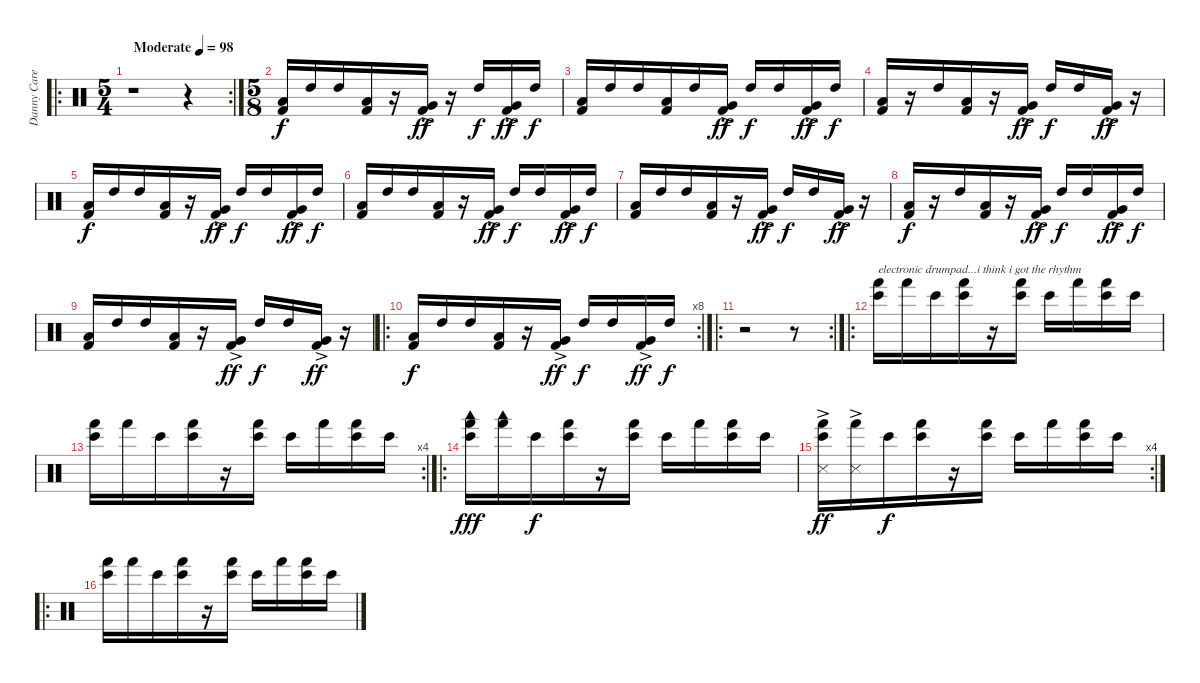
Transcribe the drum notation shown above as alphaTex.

\track ("Danny Carey" "Danny Care") {instrument percussion}
\staff {score}
\articulation defaults
\ro
\rc 2
\ts (5 4)
\tempo (98 "Moderate")
\clef neutral
\ks c
r.1{dy f} r.4 |
\ts (5 8)
("Low Floor Tom (hit)" "Kick (hit) 2").16 "High Tom (hit)".16 "High Tom (hit)".16 ("Low Floor Tom (hit)" "Kick (hit) 2").16 r.16 ("Very Low Tom (hit)"{ac} "Kick (hit) 2").16{dy ff} r.16 "High Tom (hit)".16{dy f} ("Very Low Tom (hit)"{ac} "Kick (hit) 2").16{dy ff} "High Tom (hit)".16{dy f} |
("Low Floor Tom (hit)" "Kick (hit) 2").16 "High Tom (hit)".16 "High Tom (hit)".16 ("Low Floor Tom (hit)" "Kick (hit) 2").16 "High Tom (hit)".16 ("Very Low Tom (hit)"{ac} "Kick (hit) 2").16{dy ff} "High Tom (hit)".16{dy f} "High Tom (hit)".16 ("Very Low Tom (hit)"{ac} "Kick (hit) 2").16{dy ff} "High Tom (hit)".16{dy f} |
("Low Floor Tom (hit)" "Kick (hit) 2").16 r.16 "High Tom (hit)".16 ("Low Floor Tom (hit)" "Kick (hit) 2").16 r.16 ("Very Low Tom (hit)"{ac} "Kick (hit) 2").16{dy ff} "High Tom (hit)".16{dy f} "High Tom (hit)".16 ("Very Low Tom (hit)"{ac} "Kick (hit) 2").16{dy ff} r.16 |
("Low Floor Tom (hit)" "Kick (hit) 2").16{dy f} "High Tom (hit)".16 "High Tom (hit)".16 ("Low Floor Tom (hit)" "Kick (hit) 2").16 r.16 ("Very Low Tom (hit)"{ac} "Kick (hit) 2").16{dy ff} "High Tom (hit)".16{dy f} "High Tom (hit)".16 ("Very Low Tom (hit)"{ac} "Kick (hit) 2").16{dy ff} "High Tom (hit)".16{dy f} |
("Low Floor Tom (hit)" "Kick (hit) 2").16 "High Tom (hit)".16 "High Tom (hit)".16 ("Low Floor Tom (hit)" "Kick (hit) 2").16 r.16 ("Very Low Tom (hit)"{ac} "Kick (hit) 2").16{dy ff} "High Tom (hit)".16{dy f} "High Tom (hit)".16 ("Very Low Tom (hit)"{ac} "Kick (hit) 2").16{dy ff} "High Tom (hit)".16{dy f} |
("Low Floor Tom (hit)" "Kick (hit) 2").16 "High Tom (hit)".16 "High Tom (hit)".16 ("Low Floor Tom (hit)" "Kick (hit) 2").16 r.16 ("Very Low Tom (hit)"{ac} "Kick (hit) 2").16{dy ff} "High Tom (hit)".16{dy f} "High Tom (hit)".16 ("Very Low Tom (hit)"{ac} "Kick (hit) 2").16{dy ff} r.16 |
("Low Floor Tom (hit)" "Kick (hit) 2").16{dy f} r.16 "High Tom (hit)".16 ("Low Floor Tom (hit)" "Kick (hit) 2").16 r.16 ("Very Low Tom (hit)"{ac} "Kick (hit) 2").16{dy ff} "High Tom (hit)".16{dy f} "High Tom (hit)".16 ("Very Low Tom (hit)"{ac} "Kick (hit) 2").16{dy ff} "High Tom (hit)".16{dy f} |
("Low Floor Tom (hit)" "Kick (hit) 2").16 "High Tom (hit)".16 "High Tom (hit)".16 ("Low Floor Tom (hit)" "Kick (hit) 2").16 r.16 ("Very Low Tom (hit)"{ac} "Kick (hit) 2").16{dy ff} "High Tom (hit)".16{dy f} "High Tom (hit)".16 ("Very Low Tom (hit)"{ac} "Kick (hit) 2").16{dy ff} r.16 |
\ro
\rc 8
("Low Floor Tom (hit)" "Kick (hit) 2").16{dy f} "High Tom (hit)".16 "High Tom (hit)".16 ("Low Floor Tom (hit)" "Kick (hit) 2").16 r.16 ("Very Low Tom (hit)"{ac} "Kick (hit) 2").16{dy ff} "High Tom (hit)".16{dy f} "High Tom (hit)".16 ("Very Low Tom (hit)"{ac} "Kick (hit) 2").16{dy ff} "High Tom (hit)".16{dy f} |
\ro
\rc 2
r.2 r.8 |
\ro
("Bongo High (hit)" "Hand (hit)").16{txt "electronic drumpad...i think i got the rhythm"} "Hand (hit)".16 "Bongo High (hit)".16 ("Bongo High (hit)" "Hand (hit)").16 r.16 ("Bongo High (hit)" "Hand (hit)").16 "Bongo High (hit)".16 "Hand (hit)".16 ("Bongo High (hit)" "Hand (hit)").16 "Bongo High (hit)".16 |
\rc 4
("Bongo High (hit)" "Hand (hit)").16 "Hand (hit)".16 "Bongo High (hit)".16 ("Bongo High (hit)" "Hand (hit)").16 r.16 ("Bongo High (hit)" "Hand (hit)").16 "Bongo High (hit)".16 "Hand (hit)".16 ("Bongo High (hit)" "Hand (hit)").16 "Bongo High (hit)".16 |
\ro
("Bongo High (hit)" "Hand (hit)" "Woodblock low (hit)").16{dy fff} ("Hand (hit)" "Woodblock low (hit)").16 "Bongo High (hit)".16{dy f} ("Bongo High (hit)" "Hand (hit)").16 r.16 ("Bongo High (hit)" "Hand (hit)").16 "Bongo High (hit)".16 "Hand (hit)".16 ("Bongo High (hit)" "Hand (hit)").16 "Bongo High (hit)".16 |
\rc 4
("Bongo High (hit)" "Hand (hit)"{ac} "Snare (side stick) 3").16{dy ff} ("Hand (hit)"{ac} "Snare (side stick) 3").16 "Bongo High (hit)".16{dy f} ("Bongo High (hit)" "Hand (hit)").16 r.16 ("Bongo High (hit)" "Hand (hit)").16 "Bongo High (hit)".16 "Hand (hit)".16 ("Bongo High (hit)" "Hand (hit)").16 "Bongo High (hit)".16 |
\ro
("Bongo High (hit)" "Hand (hit)").16 "Hand (hit)".16 "Bongo High (hit)".16 ("Bongo High (hit)" "Hand (hit)").16 r.16 ("Bongo High (hit)" "Hand (hit)").16 "Bongo High (hit)".16 "Hand (hit)".16 ("Bongo High (hit)" "Hand (hit)").16 "Bongo High (hit)".16
